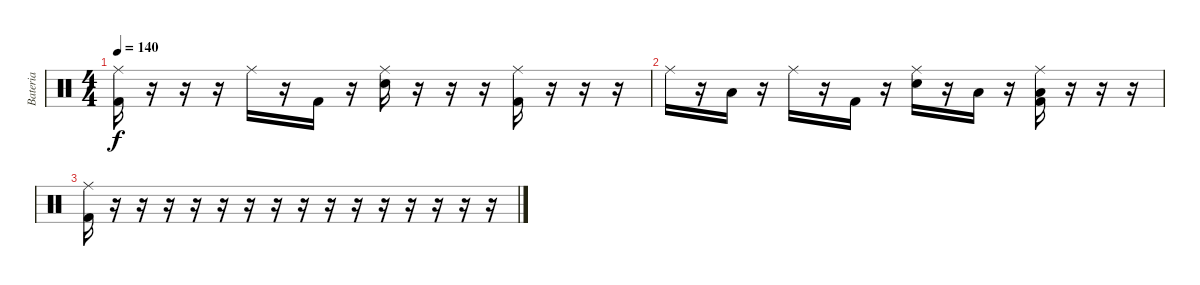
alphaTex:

\track ("Bateria" "Bateria") {instrument percussion}
\staff {score}
\articulation defaults
\ts (4 4)
\tempo 140
\clef neutral
\ks c
("Ride (middle)" "Kick (hit) 2").16{dy f} r.16 r.16 r.16 "Ride (middle)".16 r.16 "Kick (hit) 2".16 r.16 ("Ride (middle)" "Snare (hit) 2").16 r.16 r.16 r.16 ("Ride (middle)" "Kick (hit) 2").16 r.16 r.16 r.16 |
"Ride (middle)".16 r.16 "Low Tom (hit)".16 r.16 "Ride (middle)".16 r.16 "Kick (hit) 2".16 r.16 ("Ride (middle)" "Snare (hit) 2").16 r.16 "Low Tom (hit)".16 r.16 ("Ride (middle)" "Low Floor Tom (hit)" "Kick (hit) 2").16 r.16 r.16 r.16 |
("Ride (middle)" "Kick (hit) 2").16 r.16 r.16 r.16 r.16 r.16 r.16 r.16 r.16 r.16 r.16 r.16 r.16 r.16 r.16 r.16
